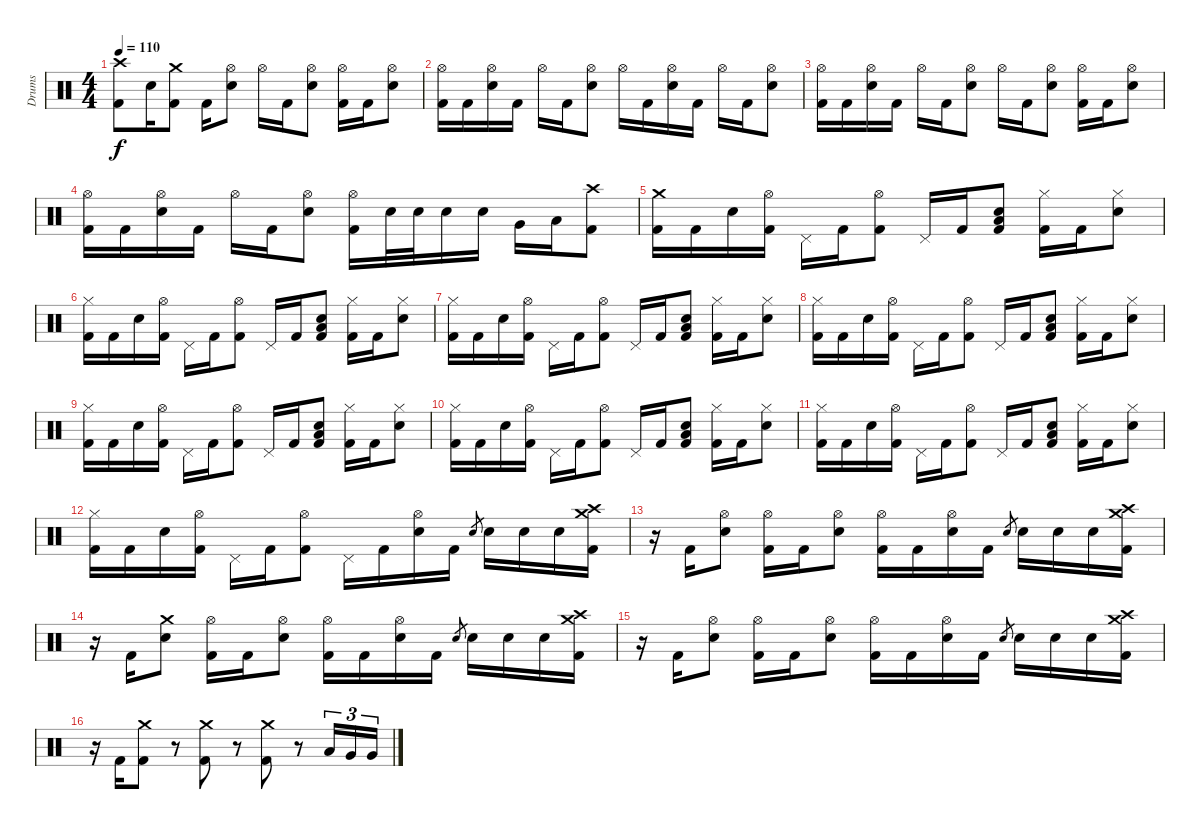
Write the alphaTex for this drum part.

\track ("Drums" "Drums") {instrument percussion}
\staff {score}
\articulation defaults
\ts (4 4)
\tempo 110
\clef neutral
\ks c
("Crash high (hit)" "Kick (hit) 2").8{dy f} "Electric Snare (hit)".16 ("Crash medium (hit)" "Kick (hit) 2").8 "Kick (hit) 2".16 ("Hi-Hat (open)" "Electric Snare (hit)").8 "Hi-Hat (open)".16 "Kick (hit) 2".16 ("Hi-Hat (open)" "Electric Snare (hit)").8 ("Hi-Hat (open)" "Kick (hit) 2").16 "Kick (hit) 2".16 ("Hi-Hat (open)" "Electric Snare (hit)").8 |
("Hi-Hat (open)" "Kick (hit) 2").16 "Kick (hit) 2".16 ("Hi-Hat (open)" "Electric Snare (hit)").16 "Kick (hit) 2".16 "Hi-Hat (open)".16 "Kick (hit) 2".16 ("Hi-Hat (open)" "Electric Snare (hit)").8 "Hi-Hat (open)".16 "Kick (hit) 2".16 ("Hi-Hat (open)" "Electric Snare (hit)").16 "Kick (hit) 2".16 "Hi-Hat (open)".16 "Kick (hit) 2".16 ("Hi-Hat (open)" "Electric Snare (hit)").8 |
("Hi-Hat (open)" "Kick (hit) 2").16 "Kick (hit) 2".16 ("Hi-Hat (open)" "Electric Snare (hit)").16 "Kick (hit) 2".16 "Hi-Hat (open)".16 "Kick (hit) 2".16 ("Hi-Hat (open)" "Electric Snare (hit)").8 "Hi-Hat (open)".16 "Kick (hit) 2".16 ("Hi-Hat (open)" "Electric Snare (hit)").8 ("Hi-Hat (open)" "Kick (hit) 2").16 "Kick (hit) 2".16 ("Hi-Hat (open)" "Electric Snare (hit)").8 |
("Hi-Hat (open)" "Kick (hit) 2").16 "Kick (hit) 2".16 ("Hi-Hat (open)" "Electric Snare (hit)").16 "Kick (hit) 2".16 "Hi-Hat (open)".16 "Kick (hit) 2".16 ("Hi-Hat (open)" "Electric Snare (hit)").8 ("Hi-Hat (open)" "Kick (hit) 2").16 "Electric Snare (hit)".32 "Electric Snare (hit)".32 "Electric Snare (hit)".16 "Electric Snare (hit)".16 "Very Low Tom (hit)".16 "Low Floor Tom (hit)".16 ("Crash high (hit)" "Kick (hit) 2").8 |
("Crash medium (hit)" "Kick (hit) 2").16 "Kick (hit) 2".16 "Electric Snare (hit)".16 ("Hi-Hat (open)" "Kick (hit) 2").16 "Pedal Hi-Hat (hit)".16 "Kick (hit) 2".16 ("Hi-Hat (open)" "Kick (hit) 2").8 "Pedal Hi-Hat (hit)".16 "Kick (hit) 2".16 ("Low Floor Tom (hit)" "Electric Snare (hit)" "Kick (hit) 2").8 ("Hi-Hat (closed)" "Kick (hit) 2").16 "Kick (hit) 2".16 ("Hi-Hat (closed)" "Electric Snare (hit)").8 |
("Hi-Hat (closed)" "Kick (hit) 2").16 "Kick (hit) 2".16 "Electric Snare (hit)".16 ("Hi-Hat (open)" "Kick (hit) 2").16 "Pedal Hi-Hat (hit)".16 "Kick (hit) 2".16 ("Hi-Hat (open)" "Kick (hit) 2").8 "Pedal Hi-Hat (hit)".16 "Kick (hit) 2".16 ("Low Floor Tom (hit)" "Electric Snare (hit)" "Kick (hit) 2").8 ("Hi-Hat (closed)" "Kick (hit) 2").16 "Kick (hit) 2".16 ("Hi-Hat (closed)" "Electric Snare (hit)").8 |
("Hi-Hat (closed)" "Kick (hit) 2").16 "Kick (hit) 2".16 "Electric Snare (hit)".16 ("Hi-Hat (open)" "Kick (hit) 2").16 "Pedal Hi-Hat (hit)".16 "Kick (hit) 2".16 ("Hi-Hat (open)" "Kick (hit) 2").8 "Pedal Hi-Hat (hit)".16 "Kick (hit) 2".16 ("Low Floor Tom (hit)" "Electric Snare (hit)" "Kick (hit) 2").8 ("Hi-Hat (closed)" "Kick (hit) 2").16 "Kick (hit) 2".16 ("Hi-Hat (closed)" "Electric Snare (hit)").8 |
("Hi-Hat (closed)" "Kick (hit) 2").16 "Kick (hit) 2".16 "Electric Snare (hit)".16 ("Hi-Hat (open)" "Kick (hit) 2").16 "Pedal Hi-Hat (hit)".16 "Kick (hit) 2".16 ("Hi-Hat (open)" "Kick (hit) 2").8 "Pedal Hi-Hat (hit)".16 "Kick (hit) 2".16 ("Low Floor Tom (hit)" "Electric Snare (hit)" "Kick (hit) 2").8 ("Hi-Hat (closed)" "Kick (hit) 2").16 "Kick (hit) 2".16 ("Hi-Hat (closed)" "Electric Snare (hit)").8 |
("Hi-Hat (closed)" "Kick (hit) 2").16 "Kick (hit) 2".16 "Electric Snare (hit)".16 ("Hi-Hat (open)" "Kick (hit) 2").16 "Pedal Hi-Hat (hit)".16 "Kick (hit) 2".16 ("Hi-Hat (open)" "Kick (hit) 2").8 "Pedal Hi-Hat (hit)".16 "Kick (hit) 2".16 ("Low Floor Tom (hit)" "Electric Snare (hit)" "Kick (hit) 2").8 ("Hi-Hat (closed)" "Kick (hit) 2").16 "Kick (hit) 2".16 ("Hi-Hat (closed)" "Electric Snare (hit)").8 |
("Hi-Hat (closed)" "Kick (hit) 2").16 "Kick (hit) 2".16 "Electric Snare (hit)".16 ("Hi-Hat (open)" "Kick (hit) 2").16 "Pedal Hi-Hat (hit)".16 "Kick (hit) 2".16 ("Hi-Hat (open)" "Kick (hit) 2").8 "Pedal Hi-Hat (hit)".16 "Kick (hit) 2".16 ("Low Floor Tom (hit)" "Electric Snare (hit)" "Kick (hit) 2").8 ("Hi-Hat (closed)" "Kick (hit) 2").16 "Kick (hit) 2".16 ("Hi-Hat (closed)" "Electric Snare (hit)").8 |
("Hi-Hat (closed)" "Kick (hit) 2").16 "Kick (hit) 2".16 "Electric Snare (hit)".16 ("Hi-Hat (open)" "Kick (hit) 2").16 "Pedal Hi-Hat (hit)".16 "Kick (hit) 2".16 ("Hi-Hat (open)" "Kick (hit) 2").8 "Pedal Hi-Hat (hit)".16 "Kick (hit) 2".16 ("Low Floor Tom (hit)" "Electric Snare (hit)" "Kick (hit) 2").8 ("Hi-Hat (closed)" "Kick (hit) 2").16 "Kick (hit) 2".16 ("Hi-Hat (closed)" "Electric Snare (hit)").8 |
("Hi-Hat (closed)" "Kick (hit) 2").16 "Kick (hit) 2".16 "Electric Snare (hit)".16 ("Hi-Hat (open)" "Kick (hit) 2").16 "Pedal Hi-Hat (hit)".16 "Kick (hit) 2".16 ("Hi-Hat (open)" "Kick (hit) 2").8 "Pedal Hi-Hat (hit)".16 "Kick (hit) 2".16 ("Hi-Hat (open)" "Electric Snare (hit)").16 "Kick (hit) 2".16 "Electric Snare (hit)".8{gr} "Electric Snare (hit)".16 "Electric Snare (hit)".16 "Electric Snare (hit)".16 ("Crash medium (hit)" "Crash high (hit)" "Kick (hit) 2").16 |
r.16 "Kick (hit) 2".16 ("Hi-Hat (open)" "Electric Snare (hit)").8 ("Hi-Hat (open)" "Kick (hit) 2").16 "Kick (hit) 2".16 ("Hi-Hat (open)" "Electric Snare (hit)").8 ("Hi-Hat (open)" "Kick (hit) 2").16 "Kick (hit) 2".16 ("Hi-Hat (open)" "Electric Snare (hit)").16 "Kick (hit) 2".16 "Electric Snare (hit)".8{gr} "Electric Snare (hit)".16 "Electric Snare (hit)".16 "Electric Snare (hit)".16 ("Crash medium (hit)" "Crash high (hit)" "Kick (hit) 2").16 |
r.16 "Kick (hit) 2".16 ("Crash medium (hit)" "Electric Snare (hit)").8 ("Hi-Hat (open)" "Kick (hit) 2").16 "Kick (hit) 2".16 ("Hi-Hat (open)" "Electric Snare (hit)").8 ("Hi-Hat (open)" "Kick (hit) 2").16 "Kick (hit) 2".16 ("Hi-Hat (open)" "Electric Snare (hit)").16 "Kick (hit) 2".16 "Electric Snare (hit)".8{gr} "Electric Snare (hit)".16 "Electric Snare (hit)".16 "Electric Snare (hit)".16 ("Crash medium (hit)" "Crash high (hit)" "Kick (hit) 2").16 |
r.16 "Kick (hit) 2".16 ("Hi-Hat (open)" "Electric Snare (hit)").8 ("Hi-Hat (open)" "Kick (hit) 2").16 "Kick (hit) 2".16 ("Hi-Hat (open)" "Electric Snare (hit)").8 ("Hi-Hat (open)" "Kick (hit) 2").16 "Kick (hit) 2".16 ("Hi-Hat (open)" "Electric Snare (hit)").16 "Kick (hit) 2".16 "Electric Snare (hit)".8{gr} "Electric Snare (hit)".16 "Electric Snare (hit)".16 "Electric Snare (hit)".16 ("Crash medium (hit)" "Crash high (hit)" "Kick (hit) 2").16 |
r.16 "Kick (hit) 2".16 ("Crash medium (hit)" "Kick (hit) 2").8 r.8{volume 0} ("Crash medium (hit)" "Kick (hit) 2").8{volume 15} r.8{volume 0} ("Crash medium (hit)" "Kick (hit) 2").8{volume 15} r.8{volume 0} "Low Tom (hit)".16{tu (3 2) volume 15} "Very Low Tom (hit)".16{tu (3 2)} "Very Low Tom (hit)".16{tu (3 2)}
